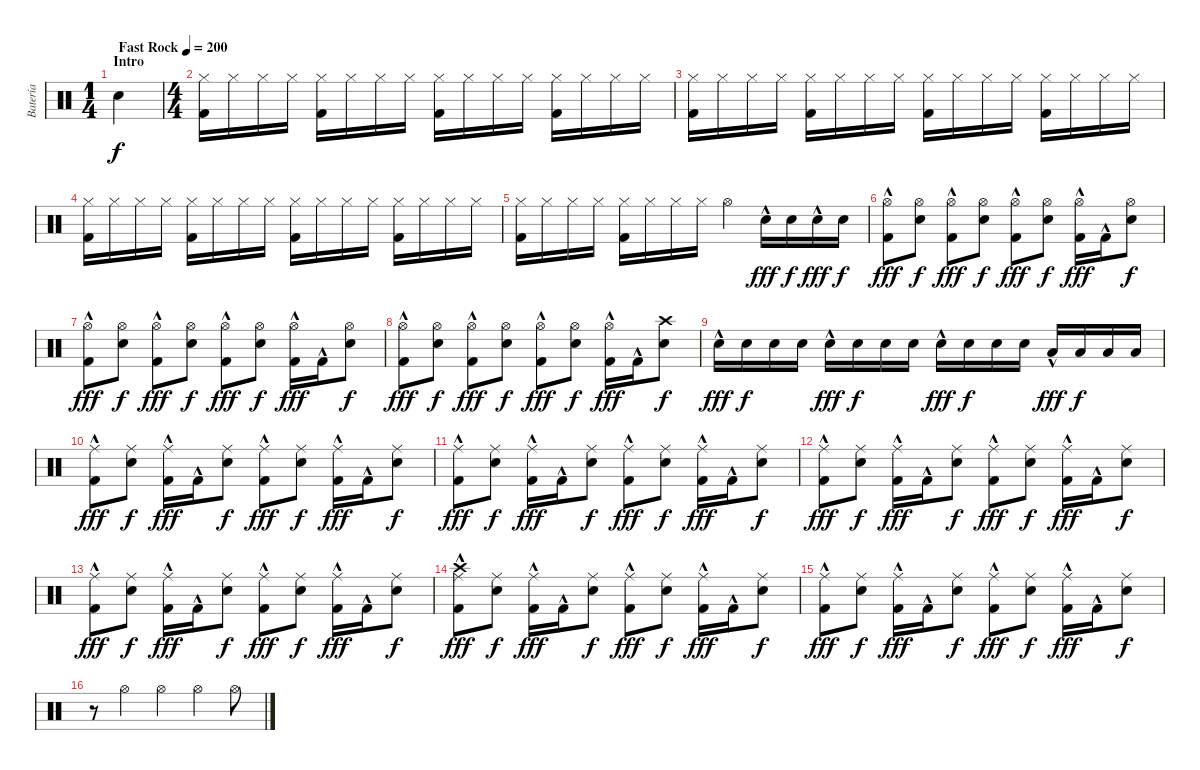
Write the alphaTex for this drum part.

\track ("Batería" "Batería") {instrument percussion bank 6}
\staff {score}
\articulation defaults
\ts (1 4)
\section ("" "Intro")
\tempo (200 "Fast Rock")
\clef neutral
\ks c "Snare (hit) 2".4{dy f}
|
\ts (4 4)
("Hi-Hat (closed)" "Kick (hit) 2").16 "Hi-Hat (closed)".16 "Hi-Hat (closed)".16 "Hi-Hat (closed)".16 ("Hi-Hat (closed)" "Kick (hit) 2").16 "Hi-Hat (closed)".16 "Hi-Hat (closed)".16 "Hi-Hat (closed)".16 ("Hi-Hat (closed)" "Kick (hit) 2").16 "Hi-Hat (closed)".16 "Hi-Hat (closed)".16 "Hi-Hat (closed)".16 ("Hi-Hat (closed)" "Kick (hit) 2").16 "Hi-Hat (closed)".16 "Hi-Hat (closed)".16 "Hi-Hat (closed)".16 |
("Hi-Hat (closed)" "Kick (hit) 2").16 "Hi-Hat (closed)".16 "Hi-Hat (closed)".16 "Hi-Hat (closed)".16 ("Hi-Hat (closed)" "Kick (hit) 2").16 "Hi-Hat (closed)".16 "Hi-Hat (closed)".16 "Hi-Hat (closed)".16 ("Hi-Hat (closed)" "Kick (hit) 2").16 "Hi-Hat (closed)".16 "Hi-Hat (closed)".16 "Hi-Hat (closed)".16 ("Hi-Hat (closed)" "Kick (hit) 2").16 "Hi-Hat (closed)".16 "Hi-Hat (closed)".16 "Hi-Hat (closed)".16 |
("Hi-Hat (closed)" "Kick (hit) 2").16 "Hi-Hat (closed)".16 "Hi-Hat (closed)".16 "Hi-Hat (closed)".16 ("Hi-Hat (closed)" "Kick (hit) 2").16 "Hi-Hat (closed)".16 "Hi-Hat (closed)".16 "Hi-Hat (closed)".16 ("Hi-Hat (closed)" "Kick (hit) 2").16 "Hi-Hat (closed)".16 "Hi-Hat (closed)".16 "Hi-Hat (closed)".16 ("Hi-Hat (closed)" "Kick (hit) 2").16 "Hi-Hat (closed)".16 "Hi-Hat (closed)".16 "Hi-Hat (closed)".16 |
("Hi-Hat (closed)" "Kick (hit) 2").16 "Hi-Hat (closed)".16 "Hi-Hat (closed)".16 "Hi-Hat (closed)".16 ("Hi-Hat (closed)" "Kick (hit) 2").16 "Hi-Hat (closed)".16 "Hi-Hat (closed)".16 "Hi-Hat (closed)".16 "Hi-Hat (open)".4 "Snare (hit) 2"{hac}.16{dy fff} "Snare (hit) 2".16{dy f} "Snare (hit) 2"{hac}.16{dy fff} "Snare (hit) 2".16{dy f} |
("Hi-Hat (open)" "Kick (hit) 2"{hac}).8{dy fff} ("Snare (hit) 2" "Hi-Hat (open)").8{dy f} ("Hi-Hat (open)" "Kick (hit) 2"{hac}).8{dy fff} ("Snare (hit) 2" "Hi-Hat (open)").8{dy f} ("Hi-Hat (open)" "Kick (hit) 2"{hac}).8{dy fff} ("Snare (hit) 2" "Hi-Hat (open)").8{dy f} ("Hi-Hat (open)" "Kick (hit) 2"{hac}).16{dy fff} "Kick (hit) 2"{hac}.16 ("Snare (hit) 2" "Hi-Hat (open)").8{dy f} |
("Hi-Hat (open)" "Kick (hit) 2"{hac}).8{dy fff} ("Snare (hit) 2" "Hi-Hat (open)").8{dy f} ("Hi-Hat (open)" "Kick (hit) 2"{hac}).8{dy fff} ("Snare (hit) 2" "Hi-Hat (open)").8{dy f} ("Hi-Hat (open)" "Kick (hit) 2"{hac}).8{dy fff} ("Snare (hit) 2" "Hi-Hat (open)").8{dy f} ("Hi-Hat (open)" "Kick (hit) 2"{hac}).16{dy fff} "Kick (hit) 2"{hac}.16 ("Snare (hit) 2" "Hi-Hat (open)").8{dy f} |
("Hi-Hat (open)" "Kick (hit) 2"{hac}).8{dy fff} ("Snare (hit) 2" "Hi-Hat (open)").8{dy f} ("Hi-Hat (open)" "Kick (hit) 2"{hac}).8{dy fff} ("Snare (hit) 2" "Hi-Hat (open)").8{dy f} ("Hi-Hat (open)" "Kick (hit) 2"{hac}).8{dy fff} ("Snare (hit) 2" "Hi-Hat (open)").8{dy f} ("Hi-Hat (open)" "Kick (hit) 2"{hac}).16{dy fff} "Kick (hit) 2"{hac}.16 ("Crash high (hit)" "Snare (hit) 2").8{dy f} |
"Snare (hit) 2"{hac}.16{dy fff} "Snare (hit) 2".16{dy f} "Snare (hit) 2".16 "Snare (hit) 2".16 "Snare (hit) 2"{hac}.16{dy fff} "Snare (hit) 2".16{dy f} "Snare (hit) 2".16 "Snare (hit) 2".16 "Snare (hit) 2"{hac}.16{dy fff} "Snare (hit) 2".16{dy f} "Snare (hit) 2".16 "Snare (hit) 2".16 "Low Tom (hit)"{hac}.16{dy fff} "Low Tom (hit)".16{dy f} "Low Tom (hit)".16 "Low Tom (hit)".16 |
("Ride (middle)" "Kick (hit) 2"{hac}).8{dy fff} ("Snare (hit) 2" "Ride (middle)").8{dy f} ("Ride (middle)" "Kick (hit) 2"{hac}).16{dy fff} "Kick (hit) 2"{hac}.16 ("Snare (hit) 2" "Ride (middle)").8{dy f} ("Ride (middle)" "Kick (hit) 2"{hac}).8{dy fff} ("Snare (hit) 2" "Ride (middle)").8{dy f} ("Ride (middle)" "Kick (hit) 2"{hac}).16{dy fff} "Kick (hit) 2"{hac}.16 ("Snare (hit) 2" "Ride (middle)").8{dy f} |
("Ride (middle)" "Kick (hit) 2"{hac}).8{dy fff} ("Snare (hit) 2" "Ride (middle)").8{dy f} ("Ride (middle)" "Kick (hit) 2"{hac}).16{dy fff} "Kick (hit) 2"{hac}.16 ("Snare (hit) 2" "Ride (middle)").8{dy f} ("Ride (middle)" "Kick (hit) 2"{hac}).8{dy fff} ("Snare (hit) 2" "Ride (middle)").8{dy f} ("Ride (middle)" "Kick (hit) 2"{hac}).16{dy fff} "Kick (hit) 2"{hac}.16 ("Snare (hit) 2" "Ride (middle)").8{dy f} |
("Ride (middle)" "Kick (hit) 2"{hac}).8{dy fff} ("Snare (hit) 2" "Ride (middle)").8{dy f} ("Ride (middle)" "Kick (hit) 2"{hac}).16{dy fff} "Kick (hit) 2"{hac}.16 ("Snare (hit) 2" "Ride (middle)").8{dy f} ("Ride (middle)" "Kick (hit) 2"{hac}).8{dy fff} ("Snare (hit) 2" "Ride (middle)").8{dy f} ("Ride (middle)" "Kick (hit) 2"{hac}).16{dy fff} "Kick (hit) 2"{hac}.16 ("Snare (hit) 2" "Ride (middle)").8{dy f} |
("Ride (middle)" "Kick (hit) 2"{hac}).8{dy fff} ("Snare (hit) 2" "Ride (middle)").8{dy f} ("Ride (middle)" "Kick (hit) 2"{hac}).16{dy fff} "Kick (hit) 2"{hac}.16 ("Snare (hit) 2" "Ride (middle)").8{dy f} ("Ride (middle)" "Kick (hit) 2"{hac}).8{dy fff} ("Snare (hit) 2" "Ride (middle)").8{dy f} ("Ride (middle)" "Kick (hit) 2"{hac}).16{dy fff} "Kick (hit) 2"{hac}.16 ("Snare (hit) 2" "Ride (middle)").8{dy f} |
("Crash high (hit)" "Ride (middle)" "Kick (hit) 2"{hac}).8{dy fff} ("Snare (hit) 2" "Ride (middle)").8{dy f} ("Ride (middle)" "Kick (hit) 2"{hac}).16{dy fff} "Kick (hit) 2"{hac}.16 ("Snare (hit) 2" "Ride (middle)").8{dy f} ("Ride (middle)" "Kick (hit) 2"{hac}).8{dy fff} ("Snare (hit) 2" "Ride (middle)").8{dy f} ("Ride (middle)" "Kick (hit) 2"{hac}).16{dy fff} "Kick (hit) 2"{hac}.16 ("Snare (hit) 2" "Ride (middle)").8{dy f} |
("Ride (middle)" "Kick (hit) 2"{hac}).8{dy fff} ("Snare (hit) 2" "Ride (middle)").8{dy f} ("Ride (middle)" "Kick (hit) 2"{hac}).16{dy fff} "Kick (hit) 2"{hac}.16 ("Snare (hit) 2" "Ride (middle)").8{dy f} ("Ride (middle)" "Kick (hit) 2"{hac}).8{dy fff} ("Snare (hit) 2" "Ride (middle)").8{dy f} ("Ride (middle)" "Kick (hit) 2"{hac}).16{dy fff} "Kick (hit) 2"{hac}.16 ("Snare (hit) 2" "Ride (middle)").8{dy f} |
r.8 "Hi-Hat (open)".4 "Hi-Hat (open)".4 "Hi-Hat (open)".4 "Hi-Hat (open)".8
